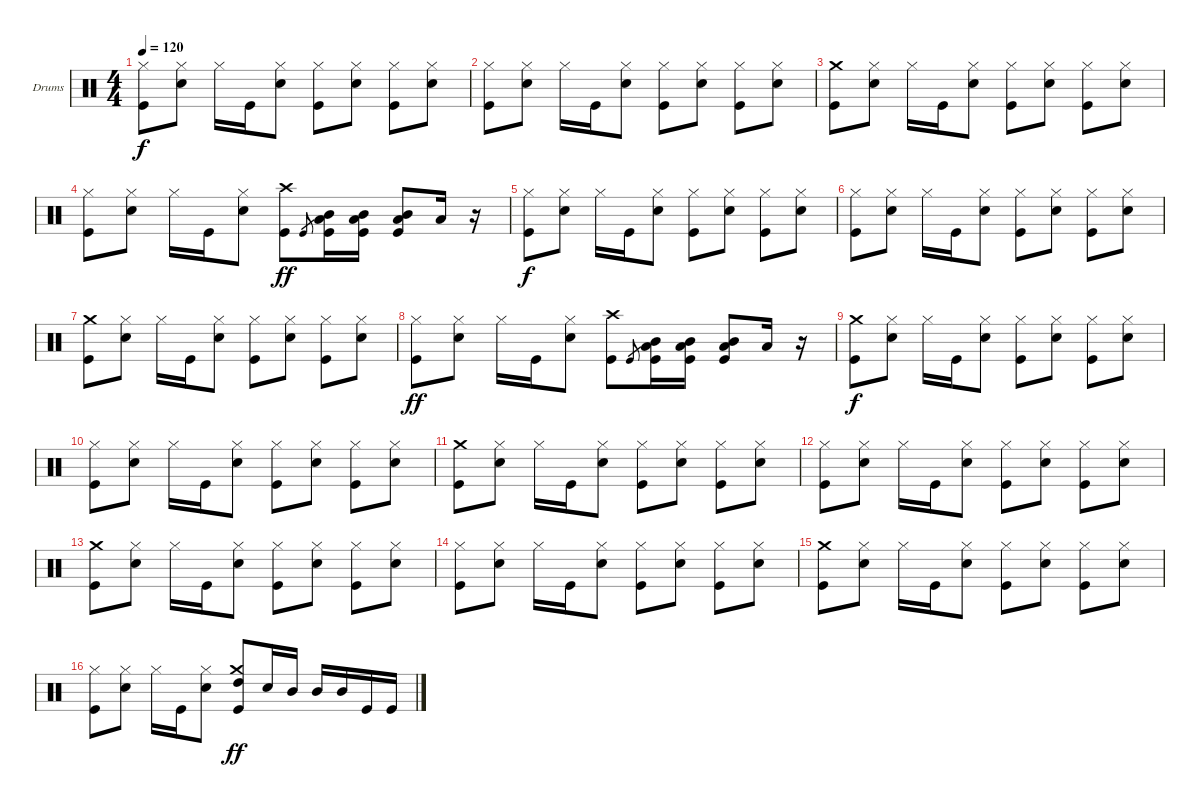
\defaultSystemsLayout 4
\bracketExtendMode groupsimilarinstruments
\firstSystemTrackNameOrientation horizontal
\otherSystemsTrackNameOrientation horizontal
\track ("Drumkit" "Drums") {instrument percussion}
\staff {score}
\articulation defaults
\ts (4 4)
\tempo 120
\clef neutral
\scale
0.333333
\ks c
("Kick (hit)" "Hi-Hat (closed)").8{dy f} ("Snare (hit) 2" "Hi-Hat (closed)").8 "Hi-Hat (closed)".16 "Kick (hit)".16 ("Snare (hit) 2" "Hi-Hat (closed)").8 ("Kick (hit)" "Hi-Hat (closed)").8 ("Snare (hit) 2" "Hi-Hat (closed)").8 ("Kick (hit)" "Hi-Hat (closed)").8 ("Snare (hit) 2" "Hi-Hat (closed)").8 |
\scale
0.333333 ("Kick (hit)" "Hi-Hat (closed)").8 ("Snare (hit) 2" "Hi-Hat (closed)").8 "Hi-Hat (closed)".16 "Kick (hit)".16 ("Snare (hit) 2" "Hi-Hat (closed)").8 ("Kick (hit)" "Hi-Hat (closed)").8 ("Snare (hit) 2" "Hi-Hat (closed)").8 ("Kick (hit)" "Hi-Hat (closed)").8 ("Snare (hit) 2" "Hi-Hat (closed)").8 |
\scale
0.333333 ("Kick (hit)" "Crash medium (hit)").8 ("Snare (hit) 2" "Hi-Hat (closed)").8 "Hi-Hat (closed)".16 "Kick (hit)".16 ("Snare (hit) 2" "Hi-Hat (closed)").8 ("Kick (hit)" "Hi-Hat (closed)").8 ("Snare (hit) 2" "Hi-Hat (closed)").8 ("Kick (hit)" "Hi-Hat (closed)").8 ("Snare (hit) 2" "Hi-Hat (closed)").8 |
\scale
0.333333 ("Kick (hit)" "Hi-Hat (closed)").8 ("Snare (hit) 2" "Hi-Hat (closed)").8 "Hi-Hat (closed)".16 "Kick (hit)".16 ("Snare (hit) 2" "Hi-Hat (closed)").8 ("Kick (hit)" "Crash high (hit)").8{dy ff} "Kick (hit)".8{gr} ("Kick (hit)" "Low Tom (hit)" "Mid Tom (hit)").16 ("Kick (hit)" "Low Tom (hit)" "Mid Tom (hit)").16 ("Kick (hit)" "Low Tom (hit)" "Mid Tom (hit)").8 "Low Tom (hit)".16 r.16 |
\scale
0.333333 ("Kick (hit)" "Hi-Hat (closed)").8{dy f} ("Snare (hit) 2" "Hi-Hat (closed)").8 "Hi-Hat (closed)".16 "Kick (hit)".16 ("Snare (hit) 2" "Hi-Hat (closed)").8 ("Kick (hit)" "Hi-Hat (closed)").8 ("Snare (hit) 2" "Hi-Hat (closed)").8 ("Kick (hit)" "Hi-Hat (closed)").8 ("Snare (hit) 2" "Hi-Hat (closed)").8 |
\scale
0.333333 ("Kick (hit)" "Hi-Hat (closed)").8 ("Snare (hit) 2" "Hi-Hat (closed)").8 "Hi-Hat (closed)".16 "Kick (hit)".16 ("Snare (hit) 2" "Hi-Hat (closed)").8 ("Kick (hit)" "Hi-Hat (closed)").8 ("Snare (hit) 2" "Hi-Hat (closed)").8 ("Kick (hit)" "Hi-Hat (closed)").8 ("Snare (hit) 2" "Hi-Hat (closed)").8 |
\scale
0.333333 ("Kick (hit)" "Crash medium (hit)").8 ("Snare (hit) 2" "Hi-Hat (closed)").8 "Hi-Hat (closed)".16 "Kick (hit)".16 ("Snare (hit) 2" "Hi-Hat (closed)").8 ("Kick (hit)" "Hi-Hat (closed)").8 ("Snare (hit) 2" "Hi-Hat (closed)").8 ("Kick (hit)" "Hi-Hat (closed)").8 ("Snare (hit) 2" "Hi-Hat (closed)").8 |
\scale
0.333333 ("Kick (hit)" "Hi-Hat (closed)").8{dy ff} ("Snare (hit) 2" "Hi-Hat (closed)").8 "Hi-Hat (closed)".16 "Kick (hit)".16 ("Snare (hit) 2" "Hi-Hat (closed)").8 ("Kick (hit)" "Crash high (hit)").8 "Kick (hit)".8{gr} ("Kick (hit)" "Low Tom (hit)" "Mid Tom (hit)").16 ("Kick (hit)" "Low Tom (hit)" "Mid Tom (hit)").16 ("Kick (hit)" "Low Tom (hit)" "Mid Tom (hit)").8 "Low Tom (hit)".16 r.16 |
\scale
0.333333 ("Kick (hit)" "Crash medium (hit)").8{dy f} ("Snare (hit) 2" "Hi-Hat (closed)").8 "Hi-Hat (closed)".16 "Kick (hit)".16 ("Snare (hit) 2" "Hi-Hat (closed)").8 ("Kick (hit)" "Hi-Hat (closed)").8 ("Snare (hit) 2" "Hi-Hat (closed)").8 ("Kick (hit)" "Hi-Hat (closed)").8 ("Snare (hit) 2" "Hi-Hat (closed)").8 |
\scale
0.333333 ("Kick (hit)" "Hi-Hat (closed)").8 ("Snare (hit) 2" "Hi-Hat (closed)").8 "Hi-Hat (closed)".16 "Kick (hit)".16 ("Snare (hit) 2" "Hi-Hat (closed)").8 ("Kick (hit)" "Hi-Hat (closed)").8 ("Snare (hit) 2" "Hi-Hat (closed)").8 ("Kick (hit)" "Hi-Hat (closed)").8 ("Snare (hit) 2" "Hi-Hat (closed)").8 |
\scale
0.333333 ("Kick (hit)" "Crash medium (hit)").8 ("Snare (hit) 2" "Hi-Hat (closed)").8 "Hi-Hat (closed)".16 "Kick (hit)".16 ("Snare (hit) 2" "Hi-Hat (closed)").8 ("Kick (hit)" "Hi-Hat (closed)").8 ("Snare (hit) 2" "Hi-Hat (closed)").8 ("Kick (hit)" "Hi-Hat (closed)").8 ("Snare (hit) 2" "Hi-Hat (closed)").8 |
\scale
0.333333 ("Kick (hit)" "Hi-Hat (closed)").8 ("Snare (hit) 2" "Hi-Hat (closed)").8 "Hi-Hat (closed)".16 "Kick (hit)".16 ("Snare (hit) 2" "Hi-Hat (closed)").8 ("Kick (hit)" "Hi-Hat (closed)").8 ("Snare (hit) 2" "Hi-Hat (closed)").8 ("Kick (hit)" "Hi-Hat (closed)").8 ("Snare (hit) 2" "Hi-Hat (closed)").8 |
\scale
0.333333 ("Kick (hit)" "Crash medium (hit)").8 ("Snare (hit) 2" "Hi-Hat (closed)").8 "Hi-Hat (closed)".16 "Kick (hit)".16 ("Snare (hit) 2" "Hi-Hat (closed)").8 ("Kick (hit)" "Hi-Hat (closed)").8 ("Snare (hit) 2" "Hi-Hat (closed)").8 ("Kick (hit)" "Hi-Hat (closed)").8 ("Snare (hit) 2" "Hi-Hat (closed)").8 |
\scale
0.333333 ("Kick (hit)" "Hi-Hat (closed)").8 ("Snare (hit) 2" "Hi-Hat (closed)").8 "Hi-Hat (closed)".16 "Kick (hit)".16 ("Snare (hit) 2" "Hi-Hat (closed)").8 ("Kick (hit)" "Hi-Hat (closed)").8 ("Snare (hit) 2" "Hi-Hat (closed)").8 ("Kick (hit)" "Hi-Hat (closed)").8 ("Snare (hit) 2" "Hi-Hat (closed)").8 |
\scale
0.333333 ("Kick (hit)" "Crash medium (hit)").8 ("Snare (hit) 2" "Hi-Hat (closed)").8 "Hi-Hat (closed)".16 "Kick (hit)".16 ("Snare (hit) 2" "Hi-Hat (closed)").8 ("Kick (hit)" "Hi-Hat (closed)").8 ("Snare (hit) 2" "Hi-Hat (closed)").8 ("Kick (hit)" "Hi-Hat (closed)").8 ("Snare (hit) 2" "Hi-Hat (closed)").8 |
\scale
0.333333 ("Kick (hit)" "Hi-Hat (closed)").8 ("Snare (hit) 2" "Hi-Hat (closed)").8 "Hi-Hat (closed)".16 "Kick (hit)".16 ("Snare (hit) 2" "Hi-Hat (closed)").8 ("Kick (hit)" "Crash medium (hit)" "High Tom (hit)").8{dy ff} "Snare (hit) 2".16 "Mid Tom (hit)".16 "Mid Tom (hit)".16 "Mid Tom (hit)".16 "Kick (hit)".16 "Kick (hit)".16
